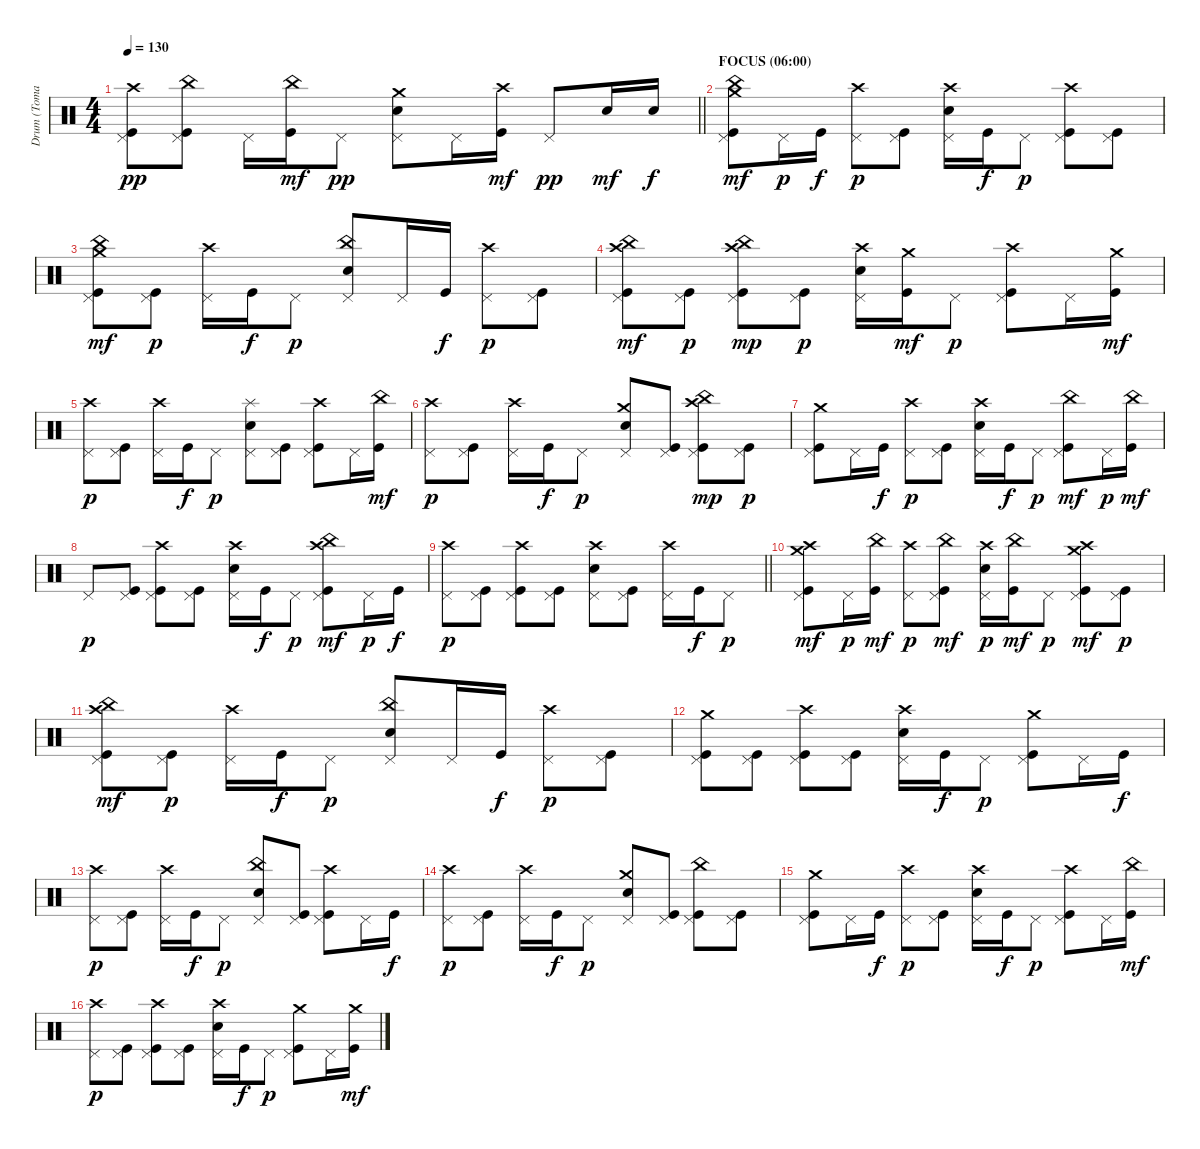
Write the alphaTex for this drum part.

\track ("Drum (Tomas Haake)" "Drum (Toma") {instrument percussion}
\staff {score}
\articulation defaults
\ts (4 4)
\tempo 130
\clef neutral
\barLineRight lightlight
\ks c
("Crash high (hit)" "Pedal Hi-Hat (hit)" "Kick (hit)").8{dy pp} ("China (hit)" "Pedal Hi-Hat (hit)" "Kick (hit)").8 "Pedal Hi-Hat (hit)".16 ("China (hit)" "Kick (hit)").16{dy mf} "Pedal Hi-Hat (hit)".8{dy pp} ("Crash medium (hit)" "Pedal Hi-Hat (hit)" "Electric Snare (hit)").8 "Pedal Hi-Hat (hit)".16 ("Crash high (hit)" "Kick (hit)").16{dy mf} "Pedal Hi-Hat (hit)".8{dy pp} "Electric Snare (hit)".16{dy mf} "Electric Snare (hit)".16{dy f} |
\section ("" "FOCUS (06:00)")
("Crash medium (hit)" "Pedal Hi-Hat (hit)" "China (hit)" "Kick (hit)").8{dy mf} "Pedal Hi-Hat (hit)".16{dy p} "Kick (hit)".16{dy f} ("Crash high (hit)" "Pedal Hi-Hat (hit)").8{dy p} ("Pedal Hi-Hat (hit)" "Kick (hit)").8 ("Crash high (hit)" "Pedal Hi-Hat (hit)" "Electric Snare (hit)").16 "Kick (hit)".16{dy f} "Pedal Hi-Hat (hit)".8{dy p} ("Crash high (hit)" "Pedal Hi-Hat (hit)" "Kick (hit)").8 ("Pedal Hi-Hat (hit)" "Kick (hit)").8 |
("Crash medium (hit)" "Pedal Hi-Hat (hit)" "China (hit)" "Kick (hit)").8{dy mf} ("Pedal Hi-Hat (hit)" "Kick (hit)").8{dy p} ("Crash high (hit)" "Pedal Hi-Hat (hit)").16 "Kick (hit)".16{dy f} "Pedal Hi-Hat (hit)".8{dy p} ("China (hit)" "Pedal Hi-Hat (hit)" "Electric Snare (hit)").8 "Pedal Hi-Hat (hit)".16 "Kick (hit)".16{dy f} ("Crash high (hit)" "Pedal Hi-Hat (hit)").8{dy p} ("Pedal Hi-Hat (hit)" "Kick (hit)").8 |
("Crash high (hit)" "Pedal Hi-Hat (hit)" "China (hit)" "Kick (hit)").8{dy mf} ("Pedal Hi-Hat (hit)" "Kick (hit)").8{dy p} ("Crash high (hit)" "Pedal Hi-Hat (hit)" "China (hit)" "Kick (hit)").8{dy mp} ("Pedal Hi-Hat (hit)" "Kick (hit)").8{dy p} ("Crash high (hit)" "Pedal Hi-Hat (hit)" "Electric Snare (hit)").16 ("Crash medium (hit)" "Kick (hit)").16{dy mf} "Pedal Hi-Hat (hit)".8{dy p} ("Crash high (hit)" "Pedal Hi-Hat (hit)" "Kick (hit)").8 "Pedal Hi-Hat (hit)".16 ("Crash medium (hit)" "Kick (hit)").16{dy mf} |
("Crash high (hit)" "Pedal Hi-Hat (hit)").8{dy p} ("Pedal Hi-Hat (hit)" "Kick (hit)").8 ("Crash high (hit)" "Pedal Hi-Hat (hit)").16 "Kick (hit)".16{dy f} "Pedal Hi-Hat (hit)".8{dy p} ("Splash (hit)" "Pedal Hi-Hat (hit)" "Electric Snare (hit)").8 ("Pedal Hi-Hat (hit)" "Kick (hit)").8 ("Crash high (hit)" "Pedal Hi-Hat (hit)" "Kick (hit)").8 "Pedal Hi-Hat (hit)".16 ("China (hit)" "Kick (hit)").16{dy mf} |
("Crash high (hit)" "Pedal Hi-Hat (hit)").8{dy p} ("Pedal Hi-Hat (hit)" "Kick (hit)").8 ("Crash high (hit)" "Pedal Hi-Hat (hit)").16 "Kick (hit)".16{dy f} "Pedal Hi-Hat (hit)".8{dy p} ("Crash medium (hit)" "Pedal Hi-Hat (hit)" "Electric Snare (hit)").8 ("Pedal Hi-Hat (hit)" "Kick (hit)").8 ("Crash high (hit)" "Pedal Hi-Hat (hit)" "China (hit)" "Kick (hit)").8{dy mp} ("Pedal Hi-Hat (hit)" "Kick (hit)").8{dy p} |
("Crash medium (hit)" "Pedal Hi-Hat (hit)" "Kick (hit)").8 "Pedal Hi-Hat (hit)".16 "Kick (hit)".16{dy f} ("Crash high (hit)" "Pedal Hi-Hat (hit)").8{dy p} ("Pedal Hi-Hat (hit)" "Kick (hit)").8 ("Crash high (hit)" "Pedal Hi-Hat (hit)" "Electric Snare (hit)").16 "Kick (hit)".16{dy f} "Pedal Hi-Hat (hit)".8{dy p} ("Pedal Hi-Hat (hit)" "China (hit)" "Kick (hit)").8{dy mf} "Pedal Hi-Hat (hit)".16{dy p} ("China (hit)" "Kick (hit)").16{dy mf} |
"Pedal Hi-Hat (hit)".8{dy p} ("Pedal Hi-Hat (hit)" "Kick (hit)").8 ("Crash high (hit)" "Pedal Hi-Hat (hit)" "Kick (hit)").8 ("Pedal Hi-Hat (hit)" "Kick (hit)").8 ("Crash high (hit)" "Pedal Hi-Hat (hit)" "Electric Snare (hit)").16 "Kick (hit)".16{dy f} "Pedal Hi-Hat (hit)".8{dy p} ("Crash high (hit)" "Pedal Hi-Hat (hit)" "China (hit)" "Kick (hit)").8{dy mf} "Pedal Hi-Hat (hit)".16{dy p} "Kick (hit)".16{dy f} |
\barLineRight lightlight
("Crash high (hit)" "Pedal Hi-Hat (hit)").8{dy p} ("Pedal Hi-Hat (hit)" "Kick (hit)").8 ("Crash high (hit)" "Pedal Hi-Hat (hit)" "Kick (hit)").8 ("Pedal Hi-Hat (hit)" "Kick (hit)").8 ("Crash high (hit)" "Pedal Hi-Hat (hit)" "Electric Snare (hit)").8 ("Pedal Hi-Hat (hit)" "Kick (hit)").8 ("Crash high (hit)" "Pedal Hi-Hat (hit)").16 "Kick (hit)".16{dy f} "Pedal Hi-Hat (hit)".8{dy p} |
("Crash high (hit)" "Pedal Hi-Hat (hit)" "Crash medium (hit)" "Kick (hit)").8{dy mf} "Pedal Hi-Hat (hit)".16{dy p} ("China (hit)" "Kick (hit)").16{dy mf} ("Crash high (hit)" "Pedal Hi-Hat (hit)").8{dy p} ("Pedal Hi-Hat (hit)" "China (hit)" "Kick (hit)").8{dy mf} ("Crash high (hit)" "Pedal Hi-Hat (hit)" "Electric Snare (hit)").16{dy p} ("China (hit)" "Kick (hit)").16{dy mf} "Pedal Hi-Hat (hit)".8{dy p} ("Crash high (hit)" "Pedal Hi-Hat (hit)" "Crash medium (hit)" "Kick (hit)").8{dy mf} ("Pedal Hi-Hat (hit)" "Kick (hit)").8{dy p} |
("Crash high (hit)" "Pedal Hi-Hat (hit)" "China (hit)" "Kick (hit)").8{dy mf} ("Pedal Hi-Hat (hit)" "Kick (hit)").8{dy p} ("Crash high (hit)" "Pedal Hi-Hat (hit)").16 "Kick (hit)".16{dy f} "Pedal Hi-Hat (hit)".8{dy p} ("China (hit)" "Pedal Hi-Hat (hit)" "Electric Snare (hit)").8 "Pedal Hi-Hat (hit)".16 "Kick (hit)".16{dy f} ("Crash high (hit)" "Pedal Hi-Hat (hit)").8{dy p} ("Pedal Hi-Hat (hit)" "Kick (hit)").8 |
("Crash medium (hit)" "Pedal Hi-Hat (hit)" "Kick (hit)").8 ("Pedal Hi-Hat (hit)" "Kick (hit)").8 ("Crash high (hit)" "Pedal Hi-Hat (hit)" "Kick (hit)").8 ("Pedal Hi-Hat (hit)" "Kick (hit)").8 ("Crash high (hit)" "Pedal Hi-Hat (hit)" "Electric Snare (hit)").16 "Kick (hit)".16{dy f} "Pedal Hi-Hat (hit)".8{dy p} ("Crash medium (hit)" "Pedal Hi-Hat (hit)" "Kick (hit)").8 "Pedal Hi-Hat (hit)".16 "Kick (hit)".16{dy f} |
("Crash high (hit)" "Pedal Hi-Hat (hit)").8{dy p} ("Pedal Hi-Hat (hit)" "Kick (hit)").8 ("Crash high (hit)" "Pedal Hi-Hat (hit)").16 "Kick (hit)".16{dy f} "Pedal Hi-Hat (hit)".8{dy p} ("China (hit)" "Pedal Hi-Hat (hit)" "Electric Snare (hit)").8 ("Pedal Hi-Hat (hit)" "Kick (hit)").8 ("Crash high (hit)" "Pedal Hi-Hat (hit)" "Kick (hit)").8 "Pedal Hi-Hat (hit)".16 "Kick (hit)".16{dy f} |
("Crash high (hit)" "Pedal Hi-Hat (hit)").8{dy p} ("Pedal Hi-Hat (hit)" "Kick (hit)").8 ("Crash high (hit)" "Pedal Hi-Hat (hit)").16 "Kick (hit)".16{dy f} "Pedal Hi-Hat (hit)".8{dy p} ("Crash medium (hit)" "Pedal Hi-Hat (hit)" "Electric Snare (hit)").8 ("Pedal Hi-Hat (hit)" "Kick (hit)").8 ("China (hit)" "Pedal Hi-Hat (hit)" "Kick (hit)").8 ("Pedal Hi-Hat (hit)" "Kick (hit)").8 |
("Crash medium (hit)" "Pedal Hi-Hat (hit)" "Kick (hit)").8 "Pedal Hi-Hat (hit)".16 "Kick (hit)".16{dy f} ("Crash high (hit)" "Pedal Hi-Hat (hit)").8{dy p} ("Pedal Hi-Hat (hit)" "Kick (hit)").8 ("Crash high (hit)" "Pedal Hi-Hat (hit)" "Electric Snare (hit)").16 "Kick (hit)".16{dy f} "Pedal Hi-Hat (hit)".8{dy p} ("Crash high (hit)" "Pedal Hi-Hat (hit)" "Kick (hit)").8 "Pedal Hi-Hat (hit)".16 ("China (hit)" "Kick (hit)").16{dy mf} |
("Crash high (hit)" "Pedal Hi-Hat (hit)").8{dy p} ("Pedal Hi-Hat (hit)" "Kick (hit)").8 ("Crash high (hit)" "Pedal Hi-Hat (hit)" "Kick (hit)").8 ("Pedal Hi-Hat (hit)" "Kick (hit)").8 ("Crash high (hit)" "Pedal Hi-Hat (hit)" "Electric Snare (hit)").16 "Kick (hit)".16{dy f} "Pedal Hi-Hat (hit)".8{dy p} ("Crash medium (hit)" "Pedal Hi-Hat (hit)" "Kick (hit)").8 "Pedal Hi-Hat (hit)".16 ("Crash medium (hit)" "Kick (hit)").16{dy mf}
